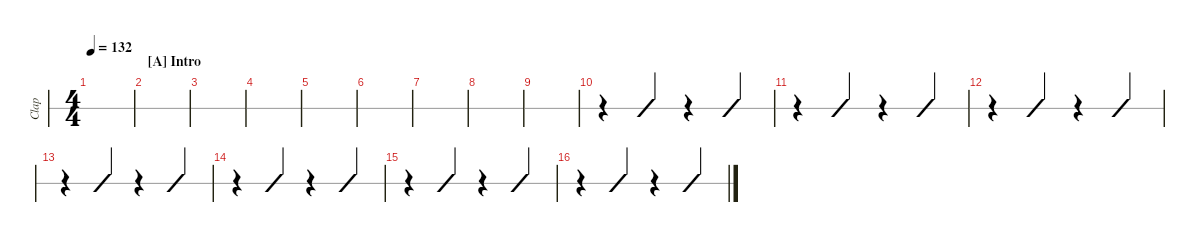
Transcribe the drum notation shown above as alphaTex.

\defaultSystemsLayout 4
\hideDynamics
\bracketExtendMode nobrackets
\otherSystemsTrackNameOrientation horizontal
\track ("Hand Clap" "Clap") {instrument percussion}
\staff {slash}
\articulation defaults
\ts (4 4)
\ac
\tempo 132
\clef neutral
\ks eb
|
\section ("A" "Intro")
|
|
|
|
|
|
|
|
r.4 "Kick (hit)".4 r.4 "Kick (hit)".4 |
r.4 "Kick (hit)".4 r.4 "Kick (hit)".4 |
r.4 "Kick (hit)".4 r.4 "Kick (hit)".4 |
r.4 "Kick (hit)".4 r.4 "Kick (hit)".4 |
r.4 "Kick (hit)".4 r.4 "Kick (hit)".4 |
r.4 "Kick (hit)".4 r.4 "Kick (hit)".4 |
r.4 "Kick (hit)".4 r.4 "Kick (hit)".4
